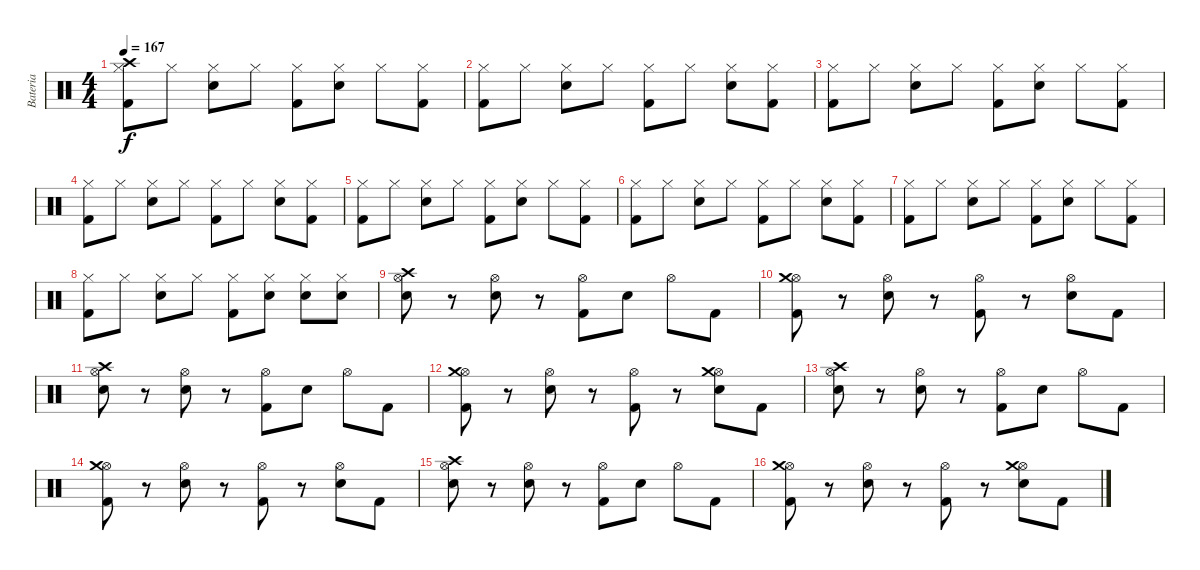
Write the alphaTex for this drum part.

\track ("Bateria" "Bateria") {instrument percussion}
\staff {score}
\articulation defaults
\ts (4 4)
\tempo 167
\clef neutral
\ks c
("Kick (hit) 2" "Hi-Hat (closed)" "Crash high (hit)").8{dy f} "Hi-Hat (closed)".8 ("Snare (hit) 2" "Hi-Hat (closed)").8 "Hi-Hat (closed)".8 ("Kick (hit) 2" "Hi-Hat (closed)").8 ("Snare (hit) 2" "Hi-Hat (closed)").8 "Hi-Hat (closed)".8 ("Kick (hit) 2" "Hi-Hat (closed)").8 |
("Kick (hit) 2" "Hi-Hat (closed)").8 "Hi-Hat (closed)".8 ("Snare (hit) 2" "Hi-Hat (closed)").8 "Hi-Hat (closed)".8 ("Kick (hit) 2" "Hi-Hat (closed)").8 "Hi-Hat (closed)".8 ("Snare (hit) 2" "Hi-Hat (closed)").8 ("Kick (hit) 2" "Hi-Hat (closed)").8 |
("Kick (hit) 2" "Hi-Hat (closed)").8 "Hi-Hat (closed)".8 ("Snare (hit) 2" "Hi-Hat (closed)").8 "Hi-Hat (closed)".8 ("Kick (hit) 2" "Hi-Hat (closed)").8 ("Snare (hit) 2" "Hi-Hat (closed)").8 "Hi-Hat (closed)".8 ("Kick (hit) 2" "Hi-Hat (closed)").8 |
("Kick (hit) 2" "Hi-Hat (closed)").8 "Hi-Hat (closed)".8 ("Snare (hit) 2" "Hi-Hat (closed)").8 "Hi-Hat (closed)".8 ("Kick (hit) 2" "Hi-Hat (closed)").8 "Hi-Hat (closed)".8 ("Snare (hit) 2" "Hi-Hat (closed)").8 ("Kick (hit) 2" "Hi-Hat (closed)").8 |
("Kick (hit) 2" "Hi-Hat (closed)").8 "Hi-Hat (closed)".8 ("Snare (hit) 2" "Hi-Hat (closed)").8 "Hi-Hat (closed)".8 ("Kick (hit) 2" "Hi-Hat (closed)").8 ("Snare (hit) 2" "Hi-Hat (closed)").8 "Hi-Hat (closed)".8 ("Kick (hit) 2" "Hi-Hat (closed)").8 |
("Kick (hit) 2" "Hi-Hat (closed)").8 "Hi-Hat (closed)".8 ("Snare (hit) 2" "Hi-Hat (closed)").8 "Hi-Hat (closed)".8 ("Kick (hit) 2" "Hi-Hat (closed)").8 "Hi-Hat (closed)".8 ("Snare (hit) 2" "Hi-Hat (closed)").8 ("Kick (hit) 2" "Hi-Hat (closed)").8 |
("Kick (hit) 2" "Hi-Hat (closed)").8 "Hi-Hat (closed)".8 ("Snare (hit) 2" "Hi-Hat (closed)").8 "Hi-Hat (closed)".8 ("Kick (hit) 2" "Hi-Hat (closed)").8 ("Snare (hit) 2" "Hi-Hat (closed)").8 "Hi-Hat (closed)".8 ("Kick (hit) 2" "Hi-Hat (closed)").8 |
("Kick (hit) 2" "Hi-Hat (closed)").8 "Hi-Hat (closed)".8 ("Snare (hit) 2" "Hi-Hat (closed)").8 "Hi-Hat (closed)".8 ("Kick (hit) 2" "Hi-Hat (closed)").8 ("Snare (hit) 2" "Hi-Hat (closed)").8 ("Snare (hit) 2" "Hi-Hat (closed)").8 ("Snare (hit) 2" "Hi-Hat (closed)").8 |
("Snare (hit) 2" "Hi-Hat (open)" "Crash high (hit)").8 r.8 ("Snare (hit) 2" "Hi-Hat (open)").8 r.8 ("Kick (hit) 2" "Hi-Hat (open)").8 "Snare (hit) 2".8 "Hi-Hat (open)".8 "Kick (hit) 2".8 |
("Kick (hit) 2" "Hi-Hat (open)" "Crash medium (hit)").8 r.8 ("Snare (hit) 2" "Hi-Hat (open)").8 r.8 ("Kick (hit) 2" "Hi-Hat (open)").8 r.8 ("Snare (hit) 2" "Hi-Hat (open)").8 "Kick (hit) 2".8 |
("Snare (hit) 2" "Hi-Hat (open)" "Crash high (hit)").8 r.8 ("Snare (hit) 2" "Hi-Hat (open)").8 r.8 ("Kick (hit) 2" "Hi-Hat (open)").8 "Snare (hit) 2".8 "Hi-Hat (open)".8 "Kick (hit) 2".8 |
("Kick (hit) 2" "Hi-Hat (open)" "Crash medium (hit)").8 r.8 ("Snare (hit) 2" "Hi-Hat (open)").8 r.8 ("Kick (hit) 2" "Hi-Hat (open)").8 r.8 ("Snare (hit) 2" "Hi-Hat (open)" "Crash medium (hit)").8 "Kick (hit) 2".8 |
("Snare (hit) 2" "Hi-Hat (open)" "Crash high (hit)").8 r.8 ("Snare (hit) 2" "Hi-Hat (open)").8 r.8 ("Kick (hit) 2" "Hi-Hat (open)").8 "Snare (hit) 2".8 "Hi-Hat (open)".8 "Kick (hit) 2".8 |
("Kick (hit) 2" "Hi-Hat (open)" "Crash medium (hit)").8 r.8 ("Snare (hit) 2" "Hi-Hat (open)").8 r.8 ("Kick (hit) 2" "Hi-Hat (open)").8 r.8 ("Snare (hit) 2" "Hi-Hat (open)").8 "Kick (hit) 2".8 |
("Snare (hit) 2" "Hi-Hat (open)" "Crash high (hit)").8 r.8 ("Snare (hit) 2" "Hi-Hat (open)").8 r.8 ("Kick (hit) 2" "Hi-Hat (open)").8 "Snare (hit) 2".8 "Hi-Hat (open)".8 "Kick (hit) 2".8 |
("Kick (hit) 2" "Hi-Hat (open)" "Crash medium (hit)").8 r.8 ("Snare (hit) 2" "Hi-Hat (open)").8 r.8 ("Kick (hit) 2" "Hi-Hat (open)").8 r.8 ("Snare (hit) 2" "Hi-Hat (open)" "Crash medium (hit)").8 "Kick (hit) 2".8
